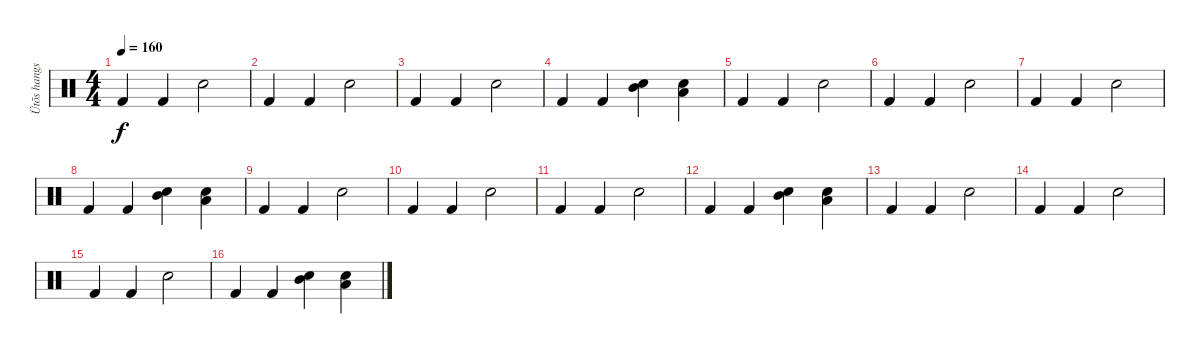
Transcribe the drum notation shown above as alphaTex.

\track ("Ütõs hangszer" "Ütõs hangs") {instrument percussion}
\staff {score}
\articulation defaults
\ts (4 4)
\tempo 160
\clef neutral
\ks c "Kick (hit) 2".4{dy f} "Kick (hit) 2".4 "Electric Snare (hit)".2
|
"Kick (hit) 2".4 "Kick (hit) 2".4 "Electric Snare (hit)".2 |
"Kick (hit) 2".4 "Kick (hit) 2".4 "Electric Snare (hit)".2 |
"Kick (hit) 2".4 "Kick (hit) 2".4 ("Electric Snare (hit)" "Mid Tom (hit)").4 ("Electric Snare (hit)" "Low Tom (hit)").4 |
"Kick (hit) 2".4 "Kick (hit) 2".4 "Electric Snare (hit)".2 |
"Kick (hit) 2".4 "Kick (hit) 2".4 "Electric Snare (hit)".2 |
"Kick (hit) 2".4 "Kick (hit) 2".4 "Electric Snare (hit)".2 |
"Kick (hit) 2".4 "Kick (hit) 2".4 ("Electric Snare (hit)" "Mid Tom (hit)").4 ("Electric Snare (hit)" "Low Tom (hit)").4 |
"Kick (hit) 2".4 "Kick (hit) 2".4 "Electric Snare (hit)".2 |
"Kick (hit) 2".4 "Kick (hit) 2".4 "Electric Snare (hit)".2 |
"Kick (hit) 2".4 "Kick (hit) 2".4 "Electric Snare (hit)".2 |
"Kick (hit) 2".4 "Kick (hit) 2".4 ("Electric Snare (hit)" "Mid Tom (hit)").4 ("Electric Snare (hit)" "Low Tom (hit)").4 |
"Kick (hit) 2".4 "Kick (hit) 2".4 "Electric Snare (hit)".2 |
"Kick (hit) 2".4 "Kick (hit) 2".4 "Electric Snare (hit)".2 |
"Kick (hit) 2".4 "Kick (hit) 2".4 "Electric Snare (hit)".2 |
"Kick (hit) 2".4 "Kick (hit) 2".4 ("Electric Snare (hit)" "Mid Tom (hit)").4 ("Electric Snare (hit)" "Low Tom (hit)").4
